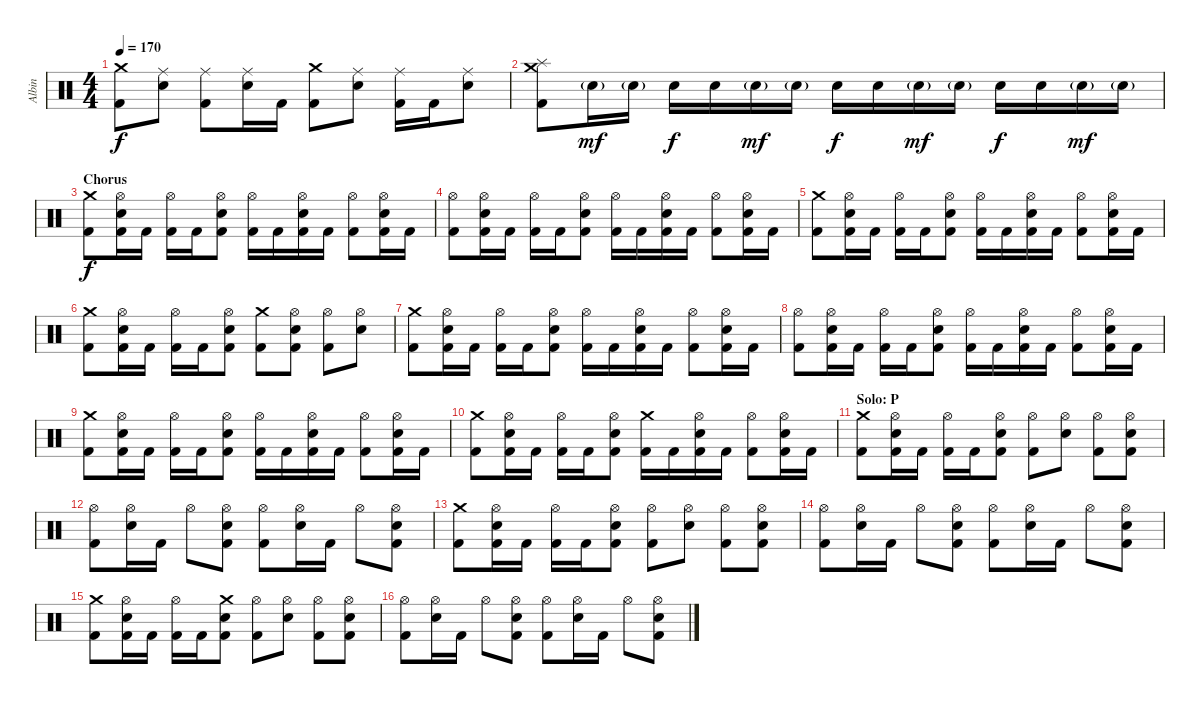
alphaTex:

\track ("Albin" "Albin") {instrument percussion}
\staff {score}
\articulation defaults
\ts (4 4)
\tempo 170
\clef neutral
\ks c
("Crash medium (hit)" "Kick (hit) 2").8{dy f} ("Ride (middle)" "Electric Snare (hit)").8 ("Ride (middle)" "Kick (hit) 2").8 ("Ride (middle)" "Electric Snare (hit)").16 "Kick (hit) 2".16 ("Crash medium (hit)" "Kick (hit) 2").8 ("Ride (middle)" "Electric Snare (hit)").8 ("Ride (middle)" "Kick (hit) 2").16 "Kick (hit) 2".16 ("Ride (middle)" "Electric Snare (hit)").8 |
("Crash medium (hit)" "Splash (hit)" "Kick (hit) 2").8 "Electric Snare (hit)"{g}.16{dy mf} "Electric Snare (hit)"{g}.16 "Electric Snare (hit)".16{dy f} "Electric Snare (hit)".16 "Electric Snare (hit)"{g}.16{dy mf} "Electric Snare (hit)"{g}.16 "Electric Snare (hit)".16{dy f} "Electric Snare (hit)".16 "Electric Snare (hit)"{g}.16{dy mf} "Electric Snare (hit)"{g}.16 "Electric Snare (hit)".16{dy f} "Electric Snare (hit)".16 "Electric Snare (hit)"{g}.16{dy mf} "Electric Snare (hit)"{g}.16 |
\section ("" "Chorus")
("Crash medium (hit)" "Kick (hit) 2").8{dy f} ("Hi-Hat (open)" "Electric Snare (hit)" "Kick (hit) 2").16 "Kick (hit) 2".16 ("Hi-Hat (open)" "Kick (hit) 2").16 "Kick (hit) 2".16 ("Hi-Hat (open)" "Electric Snare (hit)" "Kick (hit) 2").8 ("Hi-Hat (open)" "Kick (hit) 2").16 "Kick (hit) 2".16 ("Hi-Hat (open)" "Electric Snare (hit)" "Kick (hit) 2").16 "Kick (hit) 2".16 ("Hi-Hat (open)" "Kick (hit) 2").8 ("Hi-Hat (open)" "Electric Snare (hit)" "Kick (hit) 2").16 "Kick (hit) 2".16 |
("Hi-Hat (open)" "Kick (hit) 2").8 ("Hi-Hat (open)" "Electric Snare (hit)" "Kick (hit) 2").16 "Kick (hit) 2".16 ("Hi-Hat (open)" "Kick (hit) 2").16 "Kick (hit) 2".16 ("Hi-Hat (open)" "Electric Snare (hit)" "Kick (hit) 2").8 ("Hi-Hat (open)" "Kick (hit) 2").16 "Kick (hit) 2".16 ("Hi-Hat (open)" "Electric Snare (hit)" "Kick (hit) 2").16 "Kick (hit) 2".16 ("Hi-Hat (open)" "Kick (hit) 2").8 ("Hi-Hat (open)" "Electric Snare (hit)" "Kick (hit) 2").16 "Kick (hit) 2".16 |
("Crash medium (hit)" "Kick (hit) 2").8 ("Hi-Hat (open)" "Electric Snare (hit)" "Kick (hit) 2").16 "Kick (hit) 2".16 ("Hi-Hat (open)" "Kick (hit) 2").16 "Kick (hit) 2".16 ("Hi-Hat (open)" "Electric Snare (hit)" "Kick (hit) 2").8 ("Hi-Hat (open)" "Kick (hit) 2").16 "Kick (hit) 2".16 ("Hi-Hat (open)" "Electric Snare (hit)" "Kick (hit) 2").16 "Kick (hit) 2".16 ("Hi-Hat (open)" "Kick (hit) 2").8 ("Hi-Hat (open)" "Electric Snare (hit)" "Kick (hit) 2").16 "Kick (hit) 2".16 |
("Crash medium (hit)" "Kick (hit) 2").8 ("Hi-Hat (open)" "Electric Snare (hit)" "Kick (hit) 2").16 "Kick (hit) 2".16 ("Hi-Hat (open)" "Kick (hit) 2").16 "Kick (hit) 2".16 ("Hi-Hat (open)" "Electric Snare (hit)" "Kick (hit) 2").8 ("Crash medium (hit)" "Kick (hit) 2").8 ("Hi-Hat (open)" "Electric Snare (hit)" "Kick (hit) 2").8 ("Hi-Hat (open)" "Kick (hit) 2").8 ("Hi-Hat (open)" "Electric Snare (hit)").8 |
("Crash medium (hit)" "Kick (hit) 2").8 ("Hi-Hat (open)" "Electric Snare (hit)" "Kick (hit) 2").16 "Kick (hit) 2".16 ("Hi-Hat (open)" "Kick (hit) 2").16 "Kick (hit) 2".16 ("Hi-Hat (open)" "Electric Snare (hit)" "Kick (hit) 2").8 ("Hi-Hat (open)" "Kick (hit) 2").16 "Kick (hit) 2".16 ("Hi-Hat (open)" "Electric Snare (hit)" "Kick (hit) 2").16 "Kick (hit) 2".16 ("Hi-Hat (open)" "Kick (hit) 2").8 ("Hi-Hat (open)" "Electric Snare (hit)" "Kick (hit) 2").16 "Kick (hit) 2".16 |
("Hi-Hat (open)" "Kick (hit) 2").8 ("Hi-Hat (open)" "Electric Snare (hit)" "Kick (hit) 2").16 "Kick (hit) 2".16 ("Hi-Hat (open)" "Kick (hit) 2").16 "Kick (hit) 2".16 ("Hi-Hat (open)" "Electric Snare (hit)" "Kick (hit) 2").8 ("Hi-Hat (open)" "Kick (hit) 2").16 "Kick (hit) 2".16 ("Hi-Hat (open)" "Electric Snare (hit)" "Kick (hit) 2").16 "Kick (hit) 2".16 ("Hi-Hat (open)" "Kick (hit) 2").8 ("Hi-Hat (open)" "Electric Snare (hit)" "Kick (hit) 2").16 "Kick (hit) 2".16 |
("Crash medium (hit)" "Kick (hit) 2").8 ("Hi-Hat (open)" "Electric Snare (hit)" "Kick (hit) 2").16 "Kick (hit) 2".16 ("Hi-Hat (open)" "Kick (hit) 2").16 "Kick (hit) 2".16 ("Hi-Hat (open)" "Electric Snare (hit)" "Kick (hit) 2").8 ("Hi-Hat (open)" "Kick (hit) 2").16 "Kick (hit) 2".16 ("Hi-Hat (open)" "Electric Snare (hit)" "Kick (hit) 2").16 "Kick (hit) 2".16 ("Hi-Hat (open)" "Kick (hit) 2").8 ("Hi-Hat (open)" "Electric Snare (hit)" "Kick (hit) 2").16 "Kick (hit) 2".16 |
("Crash medium (hit)" "Kick (hit) 2").8 ("Hi-Hat (open)" "Electric Snare (hit)" "Kick (hit) 2").16 "Kick (hit) 2".16 ("Hi-Hat (open)" "Kick (hit) 2").16 "Kick (hit) 2".16 ("Hi-Hat (open)" "Electric Snare (hit)" "Kick (hit) 2").8 ("Crash medium (hit)" "Kick (hit) 2").16 "Kick (hit) 2".16 ("Hi-Hat (open)" "Electric Snare (hit)" "Kick (hit) 2").16 "Kick (hit) 2".16 ("Hi-Hat (open)" "Kick (hit) 2").8 ("Hi-Hat (open)" "Electric Snare (hit)" "Kick (hit) 2").16 "Kick (hit) 2".16 |
\section ("" "Solo: P")
("Crash medium (hit)" "Kick (hit) 2").8 ("Hi-Hat (open)" "Electric Snare (hit)" "Kick (hit) 2").16 "Kick (hit) 2".16 ("Hi-Hat (open)" "Kick (hit) 2").16 "Kick (hit) 2".16 ("Hi-Hat (open)" "Electric Snare (hit)" "Kick (hit) 2").8 ("Hi-Hat (open)" "Kick (hit) 2").8 ("Hi-Hat (open)" "Electric Snare (hit)").8 ("Hi-Hat (open)" "Kick (hit) 2").8 ("Hi-Hat (open)" "Electric Snare (hit)" "Kick (hit) 2").8 |
("Hi-Hat (open)" "Kick (hit) 2").8 ("Hi-Hat (open)" "Electric Snare (hit)").16 "Kick (hit) 2".16 "Hi-Hat (open)".8 ("Hi-Hat (open)" "Electric Snare (hit)" "Kick (hit) 2").8 ("Hi-Hat (open)" "Kick (hit) 2").8 ("Hi-Hat (open)" "Electric Snare (hit)").16 "Kick (hit) 2".16 "Hi-Hat (open)".8 ("Hi-Hat (open)" "Electric Snare (hit)" "Kick (hit) 2").8 |
("Crash medium (hit)" "Kick (hit) 2").8 ("Hi-Hat (open)" "Electric Snare (hit)" "Kick (hit) 2").16 "Kick (hit) 2".16 ("Hi-Hat (open)" "Kick (hit) 2").16 "Kick (hit) 2".16 ("Hi-Hat (open)" "Electric Snare (hit)" "Kick (hit) 2").8 ("Hi-Hat (open)" "Kick (hit) 2").8 ("Hi-Hat (open)" "Electric Snare (hit)").8 ("Hi-Hat (open)" "Kick (hit) 2").8 ("Hi-Hat (open)" "Electric Snare (hit)" "Kick (hit) 2").8 |
("Hi-Hat (open)" "Kick (hit) 2").8 ("Hi-Hat (open)" "Electric Snare (hit)").16 "Kick (hit) 2".16 "Hi-Hat (open)".8 ("Hi-Hat (open)" "Electric Snare (hit)" "Kick (hit) 2").8 ("Hi-Hat (open)" "Kick (hit) 2").8 ("Hi-Hat (open)" "Electric Snare (hit)").16 "Kick (hit) 2".16 "Hi-Hat (open)".8 ("Hi-Hat (open)" "Electric Snare (hit)" "Kick (hit) 2").8 |
("Crash medium (hit)" "Kick (hit) 2").8 ("Hi-Hat (open)" "Electric Snare (hit)" "Kick (hit) 2").16 "Kick (hit) 2".16 ("Hi-Hat (open)" "Kick (hit) 2").16 "Kick (hit) 2".16 ("Crash medium (hit)" "Electric Snare (hit)" "Kick (hit) 2").8 ("Hi-Hat (open)" "Kick (hit) 2").8 ("Hi-Hat (open)" "Electric Snare (hit)").8 ("Hi-Hat (open)" "Kick (hit) 2").8 ("Hi-Hat (open)" "Electric Snare (hit)" "Kick (hit) 2").8 |
("Hi-Hat (open)" "Kick (hit) 2").8 ("Hi-Hat (open)" "Electric Snare (hit)").16 "Kick (hit) 2".16 "Hi-Hat (open)".8 ("Hi-Hat (open)" "Electric Snare (hit)" "Kick (hit) 2").8 ("Hi-Hat (open)" "Kick (hit) 2").8 ("Hi-Hat (open)" "Electric Snare (hit)").16 "Kick (hit) 2".16 "Hi-Hat (open)".8 ("Hi-Hat (open)" "Electric Snare (hit)" "Kick (hit) 2").8
